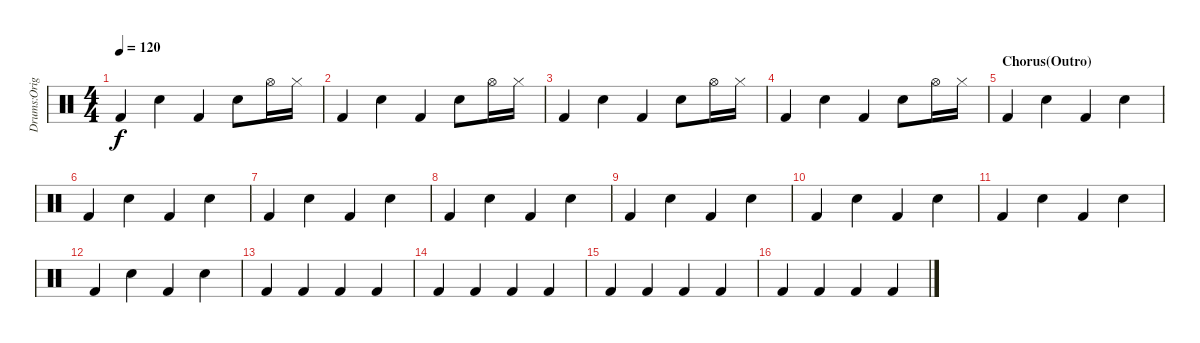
\track ("Drums:Original" "Drums:Orig") {instrument percussion}
\staff {score}
\articulation defaults
\ts (4 4)
\tempo 120
\clef neutral
\ks c "Kick (hit) 2".4{dy f} "Snare (hit) 2".4 "Kick (hit) 2".4 "Snare (hit) 2".8 "Hi-Hat (open)".16 "Hi-Hat (closed)".16
|
"Kick (hit) 2".4 "Snare (hit) 2".4 "Kick (hit) 2".4 "Snare (hit) 2".8 "Hi-Hat (open)".16 "Hi-Hat (closed)".16 |
"Kick (hit) 2".4 "Snare (hit) 2".4 "Kick (hit) 2".4 "Snare (hit) 2".8 "Hi-Hat (open)".16 "Hi-Hat (closed)".16 |
"Kick (hit) 2".4 "Snare (hit) 2".4 "Kick (hit) 2".4 "Snare (hit) 2".8 "Hi-Hat (open)".16 "Hi-Hat (closed)".16 |
\section ("" "Chorus(Outro)")
"Kick (hit) 2".4 "Snare (hit) 2".4 "Kick (hit) 2".4 "Snare (hit) 2".4 |
"Kick (hit) 2".4 "Snare (hit) 2".4 "Kick (hit) 2".4 "Snare (hit) 2".4 |
"Kick (hit) 2".4 "Snare (hit) 2".4 "Kick (hit) 2".4 "Snare (hit) 2".4 |
"Kick (hit) 2".4 "Snare (hit) 2".4 "Kick (hit) 2".4 "Snare (hit) 2".4 |
"Kick (hit) 2".4 "Snare (hit) 2".4 "Kick (hit) 2".4 "Snare (hit) 2".4 |
"Kick (hit) 2".4 "Snare (hit) 2".4 "Kick (hit) 2".4 "Snare (hit) 2".4 |
"Kick (hit) 2".4 "Snare (hit) 2".4 "Kick (hit) 2".4 "Snare (hit) 2".4 |
"Kick (hit) 2".4 "Snare (hit) 2".4 "Kick (hit) 2".4 "Snare (hit) 2".4 |
"Kick (hit) 2".4 "Kick (hit) 2".4 "Kick (hit) 2".4 "Kick (hit) 2".4 |
"Kick (hit) 2".4 "Kick (hit) 2".4 "Kick (hit) 2".4 "Kick (hit) 2".4 |
"Kick (hit) 2".4 "Kick (hit) 2".4 "Kick (hit) 2".4 "Kick (hit) 2".4 |
"Kick (hit) 2".4 "Kick (hit) 2".4 "Kick (hit) 2".4 "Kick (hit) 2".4
